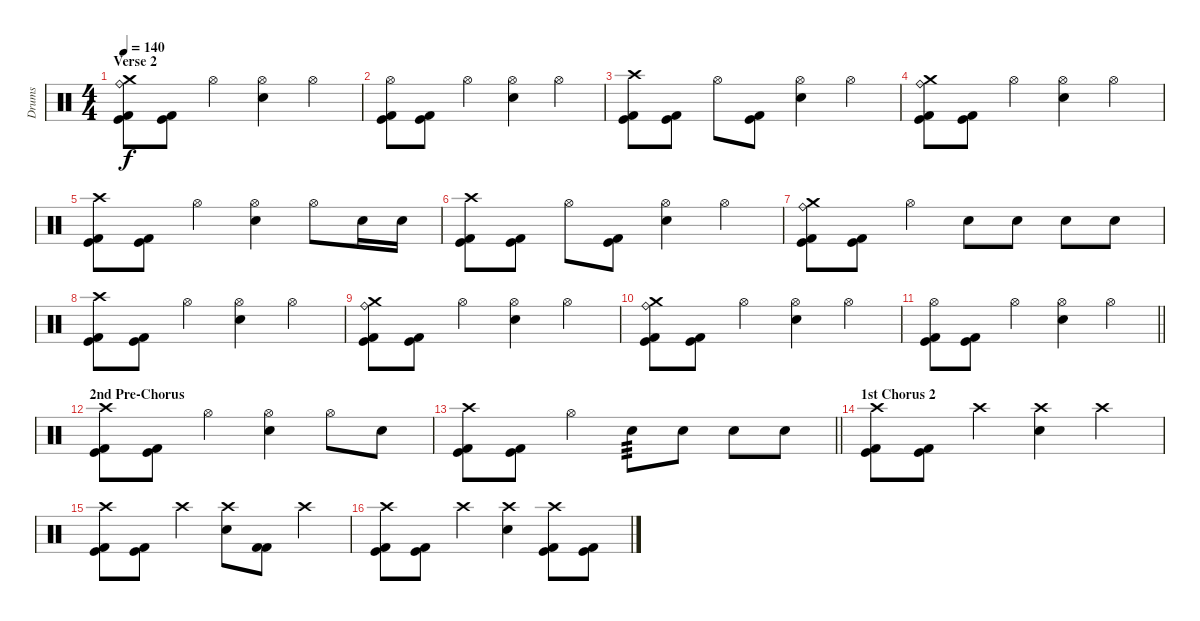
\track ("Drums" "Drums") {instrument percussion}
\staff {score}
\articulation defaults
\ts (4 4)
\section ("" "Verse 2")
\tempo 140
\clef neutral
\ks c
("Kick (hit)" "Kick (hit) 2" "Ride (bell)" "Crash medium (hit)").8{dy f} ("Kick (hit) 2" "Kick (hit)").8 "Hi-Hat (open)".4 ("Snare (hit) 2" "Hi-Hat (open)").4 "Hi-Hat (open)".4 |
("Kick (hit)" "Kick (hit) 2" "Hi-Hat (open)").8 ("Kick (hit) 2" "Kick (hit)").8 "Hi-Hat (open)".4 ("Snare (hit) 2" "Hi-Hat (open)").4 "Hi-Hat (open)".4 |
("Kick (hit)" "Kick (hit) 2" "Crash high (hit)").8 ("Kick (hit)" "Kick (hit) 2").8 "Hi-Hat (open)".8 ("Kick (hit)" "Kick (hit) 2").8 ("Snare (hit) 2" "Hi-Hat (open)").4 "Hi-Hat (open)".4 |
("Kick (hit)" "Kick (hit) 2" "Ride (bell)" "Crash medium (hit)").8 ("Kick (hit) 2" "Kick (hit)").8 "Hi-Hat (open)".4 ("Snare (hit) 2" "Hi-Hat (open)").4 "Hi-Hat (open)".4 |
("Kick (hit)" "Kick (hit) 2" "Crash high (hit)").8 ("Kick (hit)" "Kick (hit) 2").8 "Hi-Hat (open)".4 ("Snare (hit) 2" "Hi-Hat (open)").4 "Hi-Hat (open)".8 "Snare (hit) 2".16 "Snare (hit) 2".16 |
("Kick (hit)" "Kick (hit) 2" "Crash high (hit)").8 ("Kick (hit)" "Kick (hit) 2").8 "Hi-Hat (open)".8 ("Kick (hit)" "Kick (hit) 2").8 ("Snare (hit) 2" "Hi-Hat (open)").4 "Hi-Hat (open)".4 |
("Kick (hit)" "Kick (hit) 2" "Ride (bell)" "Crash medium (hit)").8 ("Kick (hit) 2" "Kick (hit)").8 "Hi-Hat (open)".4 "Snare (hit) 2".8 "Snare (hit) 2".8 "Snare (hit) 2".8 "Snare (hit) 2".8 |
("Kick (hit)" "Kick (hit) 2" "Crash high (hit)").8 ("Kick (hit) 2" "Kick (hit)").8 "Hi-Hat (open)".4 ("Snare (hit) 2" "Hi-Hat (open)").4 "Hi-Hat (open)".4 |
("Kick (hit)" "Kick (hit) 2" "Ride (bell)" "Crash medium (hit)").8 ("Kick (hit) 2" "Kick (hit)").8 "Hi-Hat (open)".4 ("Snare (hit) 2" "Hi-Hat (open)").4 "Hi-Hat (open)".4 |
("Kick (hit)" "Kick (hit) 2" "Ride (bell)" "Crash medium (hit)").8 ("Kick (hit) 2" "Kick (hit)").8 "Hi-Hat (open)".4 ("Snare (hit) 2" "Hi-Hat (open)").4 "Hi-Hat (open)".4 |
\barLineRight lightlight
("Kick (hit)" "Kick (hit) 2" "Hi-Hat (open)").8 ("Kick (hit) 2" "Kick (hit)").8 "Hi-Hat (open)".4 ("Snare (hit) 2" "Hi-Hat (open)").4 "Hi-Hat (open)".4 |
\section ("" "2nd Pre-Chorus")
("Kick (hit)" "Kick (hit) 2" "Crash high (hit)").8 ("Kick (hit) 2" "Kick (hit)").8 "Hi-Hat (open)".4 ("Snare (hit) 2" "Hi-Hat (open)").4 "Hi-Hat (open)".8 "Snare (hit) 2".8 |
\barLineRight lightlight
("Kick (hit)" "Kick (hit) 2" "Crash high (hit)").8 ("Kick (hit) 2" "Kick (hit)").8 "Hi-Hat (open)".4 "Snare (hit) 2".8{tp 3} "Snare (hit) 2".8 "Snare (hit) 2".8 "Snare (hit) 2".8 |
\section ("" "1st Chorus 2")
("Kick (hit)" "Kick (hit) 2" "Crash high (hit)").8 ("Kick (hit) 2" "Kick (hit)").8 "Crash high (hit)".4 ("Snare (hit) 2" "Crash high (hit)").4 "Crash high (hit)".4 |
("Kick (hit)" "Kick (hit) 2" "Crash high (hit)").8 ("Kick (hit) 2" "Kick (hit)").8 "Crash high (hit)".4 ("Snare (hit) 2" "Crash high (hit)").8 ("Kick (hit) 2" "Kick (hit) 2").8 "Crash high (hit)".4 |
("Kick (hit)" "Kick (hit) 2" "Crash high (hit)").8 ("Kick (hit) 2" "Kick (hit)").8 "Crash high (hit)".4 ("Snare (hit) 2" "Crash high (hit)").4 ("Crash high (hit)" "Kick (hit)" "Kick (hit) 2").8 ("Kick (hit)" "Kick (hit) 2").8
